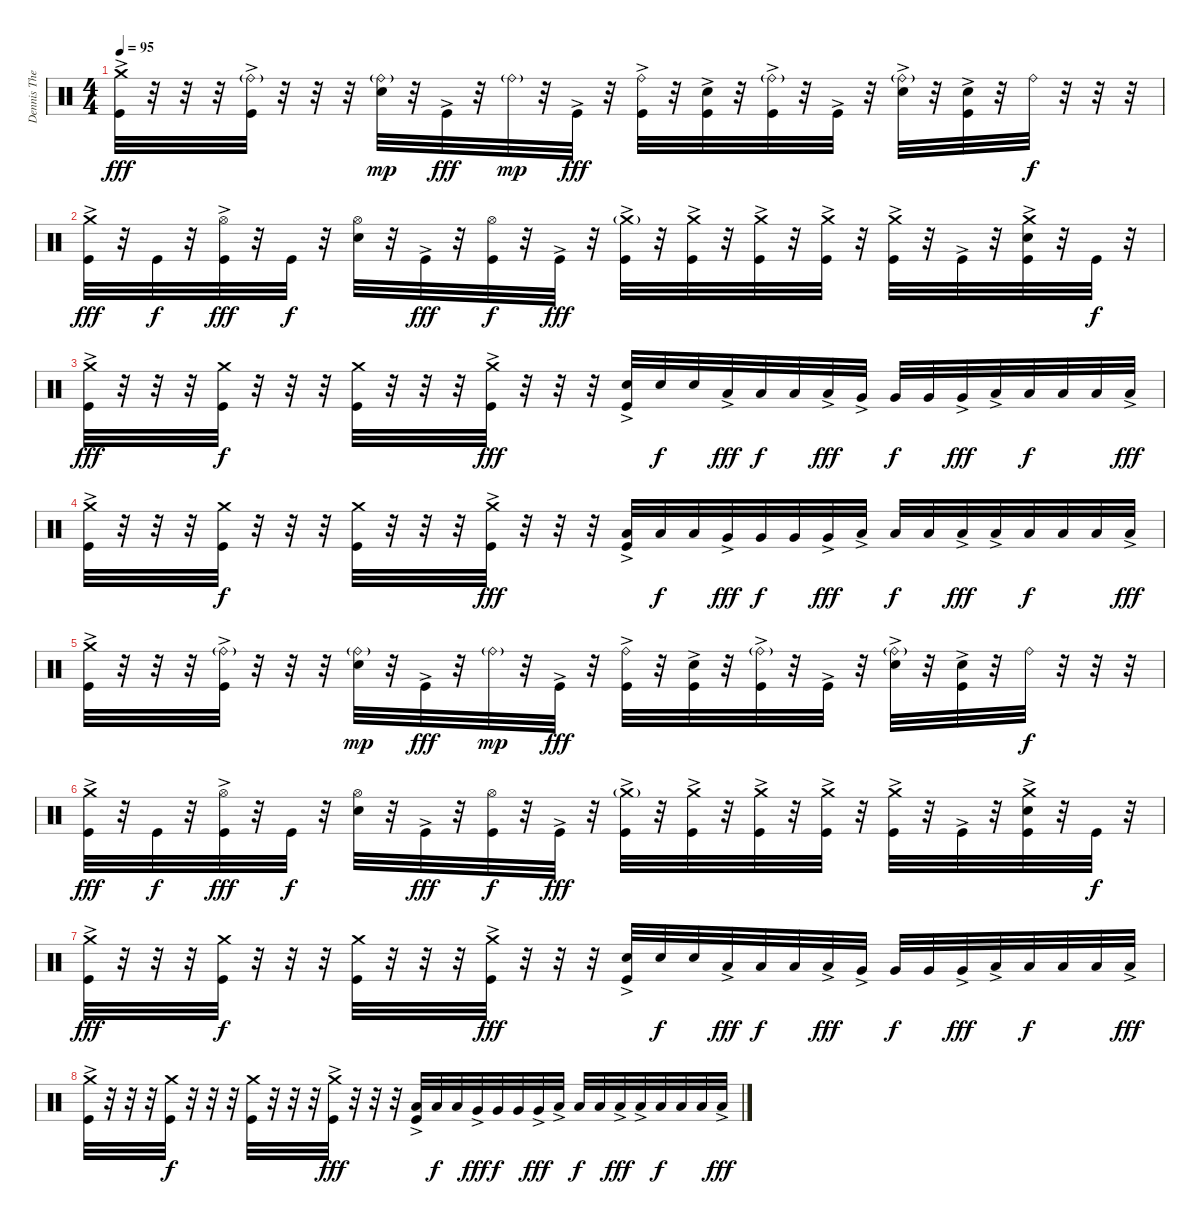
\track ("Dennis The Menace" "Dennis The") {instrument percussion}
\staff {score}
\articulation defaults
\ts (4 4)
\tempo 95
\clef neutral
\ks c
("Crash medium (hit)" "Kick (hit)"{ac}).32{dy fff} r.32 r.32 r.32 ("Ride (bell)"{g} "Kick (hit)"{ac}).32 r.32 r.32 r.32 ("Ride (bell)"{g} "Electric Snare (hit)").32{dy mp} r.32 "Kick (hit)"{ac}.32{dy fff} r.32 "Ride (bell)"{g}.32{dy mp} r.32 "Kick (hit)"{ac}.32{dy fff} r.32 ("Ride (bell)" "Kick (hit)"{ac}).32 r.32 ("Electric Snare (hit)"{ac} "Kick (hit)"{ac}).32 r.32 ("Ride (bell)"{g} "Kick (hit)"{ac}).32 r.32 "Kick (hit)"{ac}.32 r.32 ("Ride (bell)"{g} "Electric Snare (hit)"{ac}).32 r.32 ("Electric Snare (hit)" "Kick (hit)"{ac}).32 r.32 "Ride (bell)".32{dy f} r.32 r.32 r.32 |
("Crash medium (hit)" "Kick (hit)"{ac}).32{dy fff} r.32 "Kick (hit)".32{dy f} r.32 ("Hi-Hat (open)" "Kick (hit)"{ac}).32{dy fff} r.32 "Kick (hit)".32{dy f} r.32 ("Hi-Hat (open)" "Electric Snare (hit)").32 r.32 "Kick (hit)"{ac}.32{dy fff} r.32 ("Hi-Hat (open)" "Kick (hit)").32{dy f} r.32 "Kick (hit)"{ac}.32{dy fff} r.32 ("Crash medium (hit)"{g} "Kick (hit)"{ac}).32 r.32 ("Crash medium (hit)" "Kick (hit)"{ac}).32 r.32 ("Crash medium (hit)" "Kick (hit)"{ac}).32 r.32 ("Crash medium (hit)"{ac} "Kick (hit)"{ac}).32 r.32 ("Crash medium (hit)"{ac} "Kick (hit)"{ac}).32 r.32 "Kick (hit)"{ac}.32 r.32 ("Crash medium (hit)" "Kick (hit)" "Electric Snare (hit)"{ac}).32 r.32 "Kick (hit)".32{dy f} r.32 |
("Crash medium (hit)"{ac} "Kick (hit)").32{dy fff} r.32 r.32 r.32 ("Crash medium (hit)" "Kick (hit)").32{dy f} r.32 r.32 r.32 ("Crash medium (hit)" "Kick (hit)").32 r.32 r.32 r.32 ("Crash medium (hit)"{ac} "Kick (hit)").32{dy fff} r.32 r.32 r.32 ("Electric Snare (hit)"{ac} "Kick (hit)").32 "Electric Snare (hit)".32{dy f} "Electric Snare (hit)".32 "Low Tom (hit)"{ac}.32{dy fff} "Low Tom (hit)".32{dy f} "Low Tom (hit)".32 "Low Tom (hit)"{ac}.32{dy fff} "Very Low Tom (hit)"{ac}.32 "Very Low Tom (hit)".32{dy f} "Very Low Tom (hit)".32 "Very Low Tom (hit)"{ac}.32{dy fff} "Low Floor Tom (hit)"{ac}.32 "Low Floor Tom (hit)".32{dy f} "Low Floor Tom (hit)".32 "Low Floor Tom (hit)".32 "Low Floor Tom (hit)"{ac}.32{dy fff} |
("Crash medium (hit)"{ac} "Kick (hit)").32 r.32 r.32 r.32 ("Crash medium (hit)" "Kick (hit)").32{dy f} r.32 r.32 r.32 ("Crash medium (hit)" "Kick (hit)").32 r.32 r.32 r.32 ("Crash medium (hit)"{ac} "Kick (hit)").32{dy fff} r.32 r.32 r.32 ("Low Floor Tom (hit)"{ac} "Kick (hit)").32 "Low Floor Tom (hit)".32{dy f} "Low Floor Tom (hit)".32 "Very Low Tom (hit)"{ac}.32{dy fff} "Very Low Tom (hit)".32{dy f} "Very Low Tom (hit)".32 "Very Low Tom (hit)"{ac}.32{dy fff} "Low Floor Tom (hit)"{ac}.32 "Low Floor Tom (hit)".32{dy f} "Low Floor Tom (hit)".32 "Low Floor Tom (hit)"{ac}.32{dy fff} "Low Floor Tom (hit)"{ac}.32 "Low Floor Tom (hit)".32{dy f} "Low Floor Tom (hit)".32 "Low Floor Tom (hit)".32 "Low Floor Tom (hit)"{ac}.32{dy fff} |
("Crash medium (hit)" "Kick (hit)"{ac}).32 r.32 r.32 r.32 ("Ride (bell)"{g} "Kick (hit)"{ac}).32 r.32 r.32 r.32 ("Ride (bell)"{g} "Electric Snare (hit)").32{dy mp} r.32 "Kick (hit)"{ac}.32{dy fff} r.32 "Ride (bell)"{g}.32{dy mp} r.32 "Kick (hit)"{ac}.32{dy fff} r.32 ("Ride (bell)" "Kick (hit)"{ac}).32 r.32 ("Electric Snare (hit)"{ac} "Kick (hit)"{ac}).32 r.32 ("Ride (bell)"{g} "Kick (hit)"{ac}).32 r.32 "Kick (hit)"{ac}.32 r.32 ("Ride (bell)"{g} "Electric Snare (hit)"{ac}).32 r.32 ("Electric Snare (hit)" "Kick (hit)"{ac}).32 r.32 "Ride (bell)".32{dy f} r.32 r.32 r.32 |
("Crash medium (hit)" "Kick (hit)"{ac}).32{dy fff} r.32 "Kick (hit)".32{dy f} r.32 ("Hi-Hat (open)" "Kick (hit)"{ac}).32{dy fff} r.32 "Kick (hit)".32{dy f} r.32 ("Hi-Hat (open)" "Electric Snare (hit)").32 r.32 "Kick (hit)"{ac}.32{dy fff} r.32 ("Hi-Hat (open)" "Kick (hit)").32{dy f} r.32 "Kick (hit)"{ac}.32{dy fff} r.32 ("Crash medium (hit)"{g} "Kick (hit)"{ac}).32 r.32 ("Crash medium (hit)" "Kick (hit)"{ac}).32 r.32 ("Crash medium (hit)" "Kick (hit)"{ac}).32 r.32 ("Crash medium (hit)"{ac} "Kick (hit)"{ac}).32 r.32 ("Crash medium (hit)"{ac} "Kick (hit)"{ac}).32 r.32 "Kick (hit)"{ac}.32 r.32 ("Crash medium (hit)" "Kick (hit)" "Electric Snare (hit)"{ac}).32 r.32 "Kick (hit)".32{dy f} r.32 |
("Crash medium (hit)"{ac} "Kick (hit)").32{dy fff} r.32 r.32 r.32 ("Crash medium (hit)" "Kick (hit)").32{dy f} r.32 r.32 r.32 ("Crash medium (hit)" "Kick (hit)").32 r.32 r.32 r.32 ("Crash medium (hit)"{ac} "Kick (hit)").32{dy fff} r.32 r.32 r.32 ("Electric Snare (hit)"{ac} "Kick (hit)").32 "Electric Snare (hit)".32{dy f} "Electric Snare (hit)".32 "Low Tom (hit)"{ac}.32{dy fff} "Low Tom (hit)".32{dy f} "Low Tom (hit)".32 "Low Tom (hit)"{ac}.32{dy fff} "Very Low Tom (hit)"{ac}.32 "Very Low Tom (hit)".32{dy f} "Very Low Tom (hit)".32 "Very Low Tom (hit)"{ac}.32{dy fff} "Low Floor Tom (hit)"{ac}.32 "Low Floor Tom (hit)".32{dy f} "Low Floor Tom (hit)".32 "Low Floor Tom (hit)".32 "Low Floor Tom (hit)"{ac}.32{dy fff} |
("Crash medium (hit)"{ac} "Kick (hit)").32 r.32 r.32 r.32 ("Crash medium (hit)" "Kick (hit)").32{dy f} r.32 r.32 r.32 ("Crash medium (hit)" "Kick (hit)").32 r.32 r.32 r.32 ("Crash medium (hit)"{ac} "Kick (hit)").32{dy fff} r.32 r.32 r.32 ("Low Floor Tom (hit)"{ac} "Kick (hit)").32 "Low Floor Tom (hit)".32{dy f} "Low Floor Tom (hit)".32 "Very Low Tom (hit)"{ac}.32{dy fff} "Very Low Tom (hit)".32{dy f} "Very Low Tom (hit)".32 "Very Low Tom (hit)"{ac}.32{dy fff} "Low Floor Tom (hit)"{ac}.32 "Low Floor Tom (hit)".32{dy f} "Low Floor Tom (hit)".32 "Low Floor Tom (hit)"{ac}.32{dy fff} "Low Floor Tom (hit)"{ac}.32 "Low Floor Tom (hit)".32{dy f} "Low Floor Tom (hit)".32 "Low Floor Tom (hit)".32 "Low Floor Tom (hit)"{ac}.32{dy fff}
